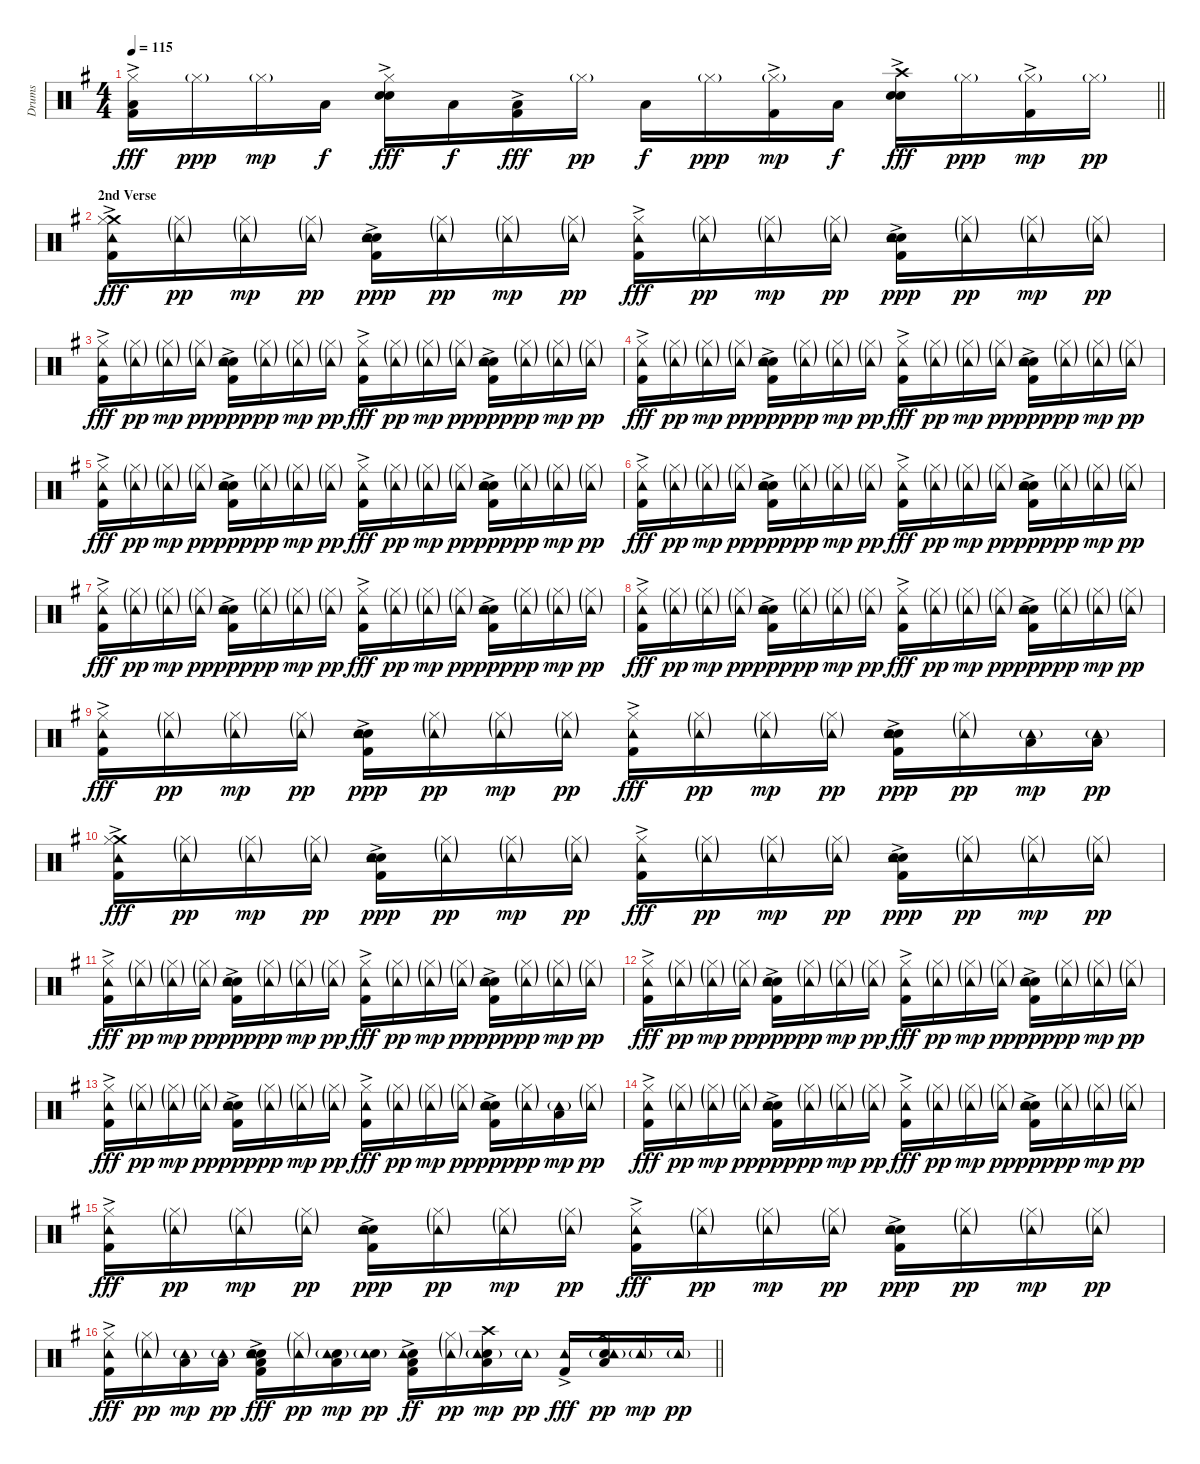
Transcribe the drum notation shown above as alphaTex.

\track ("Drums" "Drums") {instrument percussion}
\staff {score}
\articulation defaults
\ts (4 4)
\tempo 115
\clef neutral
\barLineRight lightlight
\ks g
("Kick (hit) 2"{ac} "Low Tom (hit)" "Hi-Hat (closed)").16{dy fff} "Hi-Hat (closed)"{g}.16{dy ppp} "Hi-Hat (closed)"{g}.16{dy mp} "Low Tom (hit)".16{dy f} ("Snare (hit) 2"{ac} "Electric Snare (hit)" "Hi-Hat (closed)").16{dy fff} "Low Tom (hit)".16{dy f} ("Kick (hit) 2"{ac} "Low Floor Tom (hit)").16{dy fff} "Hi-Hat (closed)"{g}.16{dy pp} "Low Floor Tom (hit)".16{dy f} "Hi-Hat (closed)"{g}.16{dy ppp} ("Kick (hit) 2"{ac} "Hi-Hat (closed)"{g}).16{dy mp} "Low Floor Tom (hit)".16{dy f} ("Snare (hit) 2"{ac} "Electric Snare (hit)" "Crash high (hit)").16{dy fff} "Hi-Hat (closed)"{g}.16{dy ppp} ("Kick (hit) 2"{ac} "Hi-Hat (closed)"{g}).16{dy mp} "Hi-Hat (closed)"{g}.16{dy pp} |
\section ("" "2nd Verse")
("Kick (hit) 2"{ac} "Crash medium (hit)" "Hi-Hat (closed)" "Tambourine (hit)").16{dy fff} ("Hi-Hat (closed)"{g} "Tambourine (hit)"{g}).16{dy pp} ("Hi-Hat (closed)"{g} "Tambourine (hit)"{g}).16{dy mp} ("Hi-Hat (closed)"{g} "Tambourine (hit)"{g}).16{dy pp} ("Kick (hit) 2"{ac} "Snare (hit) 2"{ac} "Electric Snare (hit)" "Tambourine (hit)").16{dy ppp} ("Hi-Hat (closed)"{g} "Tambourine (hit)"{g}).16{dy pp} ("Hi-Hat (closed)"{g} "Tambourine (hit)"{g}).16{dy mp} ("Hi-Hat (closed)"{g} "Tambourine (hit)"{g}).16{dy pp} ("Kick (hit) 2"{ac} "Hi-Hat (closed)" "Tambourine (hit)").16{dy fff} ("Hi-Hat (closed)"{g} "Tambourine (hit)"{g}).16{dy pp} ("Hi-Hat (closed)"{g} "Tambourine (hit)"{g}).16{dy mp} ("Hi-Hat (closed)"{g} "Tambourine (hit)"{g}).16{dy pp} ("Kick (hit) 2"{ac} "Snare (hit) 2"{ac} "Electric Snare (hit)" "Tambourine (hit)").16{dy ppp} ("Hi-Hat (closed)"{g} "Tambourine (hit)"{g}).16{dy pp} ("Hi-Hat (closed)"{g} "Tambourine (hit)"{g}).16{dy mp} ("Hi-Hat (closed)"{g} "Tambourine (hit)"{g}).16{dy pp} |
("Kick (hit) 2"{ac} "Hi-Hat (closed)" "Tambourine (hit)").16{dy fff} ("Hi-Hat (closed)"{g} "Tambourine (hit)"{g}).16{dy pp} ("Hi-Hat (closed)"{g} "Tambourine (hit)"{g}).16{dy mp} ("Hi-Hat (closed)"{g} "Tambourine (hit)"{g}).16{dy pp} ("Kick (hit) 2"{ac} "Snare (hit) 2"{ac} "Electric Snare (hit)" "Tambourine (hit)").16{dy ppp} ("Hi-Hat (closed)"{g} "Tambourine (hit)"{g}).16{dy pp} ("Hi-Hat (closed)"{g} "Tambourine (hit)"{g}).16{dy mp} ("Hi-Hat (closed)"{g} "Tambourine (hit)"{g}).16{dy pp} ("Kick (hit) 2"{ac} "Hi-Hat (closed)" "Tambourine (hit)").16{dy fff} ("Hi-Hat (closed)"{g} "Tambourine (hit)"{g}).16{dy pp} ("Hi-Hat (closed)"{g} "Tambourine (hit)"{g}).16{dy mp} ("Hi-Hat (closed)"{g} "Tambourine (hit)"{g}).16{dy pp} ("Kick (hit) 2"{ac} "Snare (hit) 2"{ac} "Electric Snare (hit)" "Tambourine (hit)").16{dy ppp} ("Hi-Hat (closed)"{g} "Tambourine (hit)"{g}).16{dy pp} ("Hi-Hat (closed)"{g} "Tambourine (hit)"{g}).16{dy mp} ("Hi-Hat (closed)"{g} "Tambourine (hit)"{g}).16{dy pp} |
("Kick (hit) 2"{ac} "Hi-Hat (closed)" "Tambourine (hit)").16{dy fff} ("Hi-Hat (closed)"{g} "Tambourine (hit)"{g}).16{dy pp} ("Hi-Hat (closed)"{g} "Tambourine (hit)"{g}).16{dy mp} ("Hi-Hat (closed)"{g} "Tambourine (hit)"{g}).16{dy pp} ("Kick (hit) 2"{ac} "Snare (hit) 2"{ac} "Electric Snare (hit)" "Tambourine (hit)").16{dy ppp} ("Hi-Hat (closed)"{g} "Tambourine (hit)"{g}).16{dy pp} ("Hi-Hat (closed)"{g} "Tambourine (hit)"{g}).16{dy mp} ("Hi-Hat (closed)"{g} "Tambourine (hit)"{g}).16{dy pp} ("Kick (hit) 2"{ac} "Hi-Hat (closed)" "Tambourine (hit)").16{dy fff} ("Hi-Hat (closed)"{g} "Tambourine (hit)"{g}).16{dy pp} ("Hi-Hat (closed)"{g} "Tambourine (hit)"{g}).16{dy mp} ("Hi-Hat (closed)"{g} "Tambourine (hit)"{g}).16{dy pp} ("Kick (hit) 2"{ac} "Snare (hit) 2"{ac} "Electric Snare (hit)" "Tambourine (hit)").16{dy ppp} ("Hi-Hat (closed)"{g} "Tambourine (hit)"{g}).16{dy pp} ("Hi-Hat (closed)"{g} "Tambourine (hit)"{g}).16{dy mp} ("Hi-Hat (closed)"{g} "Tambourine (hit)"{g}).16{dy pp} |
("Kick (hit) 2"{ac} "Hi-Hat (closed)" "Tambourine (hit)").16{dy fff} ("Hi-Hat (closed)"{g} "Tambourine (hit)"{g}).16{dy pp} ("Hi-Hat (closed)"{g} "Tambourine (hit)"{g}).16{dy mp} ("Hi-Hat (closed)"{g} "Tambourine (hit)"{g}).16{dy pp} ("Kick (hit) 2"{ac} "Snare (hit) 2"{ac} "Electric Snare (hit)" "Tambourine (hit)").16{dy ppp} ("Hi-Hat (closed)"{g} "Tambourine (hit)"{g}).16{dy pp} ("Hi-Hat (closed)"{g} "Tambourine (hit)"{g}).16{dy mp} ("Hi-Hat (closed)"{g} "Tambourine (hit)"{g}).16{dy pp} ("Kick (hit) 2"{ac} "Hi-Hat (closed)" "Tambourine (hit)").16{dy fff} ("Hi-Hat (closed)"{g} "Tambourine (hit)"{g}).16{dy pp} ("Hi-Hat (closed)"{g} "Tambourine (hit)"{g}).16{dy mp} ("Hi-Hat (closed)"{g} "Tambourine (hit)"{g}).16{dy pp} ("Kick (hit) 2"{ac} "Snare (hit) 2"{ac} "Electric Snare (hit)" "Tambourine (hit)").16{dy ppp} ("Hi-Hat (closed)"{g} "Tambourine (hit)"{g}).16{dy pp} ("Hi-Hat (closed)"{g} "Tambourine (hit)"{g}).16{dy mp} ("Hi-Hat (closed)"{g} "Tambourine (hit)"{g}).16{dy pp} |
("Kick (hit) 2"{ac} "Hi-Hat (closed)" "Tambourine (hit)").16{dy fff} ("Hi-Hat (closed)"{g} "Tambourine (hit)"{g}).16{dy pp} ("Hi-Hat (closed)"{g} "Tambourine (hit)"{g}).16{dy mp} ("Hi-Hat (closed)"{g} "Tambourine (hit)"{g}).16{dy pp} ("Kick (hit) 2"{ac} "Snare (hit) 2"{ac} "Electric Snare (hit)" "Tambourine (hit)").16{dy ppp} ("Hi-Hat (closed)"{g} "Tambourine (hit)"{g}).16{dy pp} ("Hi-Hat (closed)"{g} "Tambourine (hit)"{g}).16{dy mp} ("Hi-Hat (closed)"{g} "Tambourine (hit)"{g}).16{dy pp} ("Kick (hit) 2"{ac} "Hi-Hat (closed)" "Tambourine (hit)").16{dy fff} ("Hi-Hat (closed)"{g} "Tambourine (hit)"{g}).16{dy pp} ("Hi-Hat (closed)"{g} "Tambourine (hit)"{g}).16{dy mp} ("Hi-Hat (closed)"{g} "Tambourine (hit)"{g}).16{dy pp} ("Kick (hit) 2"{ac} "Snare (hit) 2"{ac} "Electric Snare (hit)" "Tambourine (hit)").16{dy ppp} ("Hi-Hat (closed)"{g} "Tambourine (hit)"{g}).16{dy pp} ("Hi-Hat (closed)"{g} "Tambourine (hit)"{g}).16{dy mp} ("Hi-Hat (closed)"{g} "Tambourine (hit)"{g}).16{dy pp} |
("Kick (hit) 2"{ac} "Hi-Hat (closed)" "Tambourine (hit)").16{dy fff} ("Hi-Hat (closed)"{g} "Tambourine (hit)"{g}).16{dy pp} ("Hi-Hat (closed)"{g} "Tambourine (hit)"{g}).16{dy mp} ("Hi-Hat (closed)"{g} "Tambourine (hit)"{g}).16{dy pp} ("Kick (hit) 2"{ac} "Snare (hit) 2"{ac} "Electric Snare (hit)" "Tambourine (hit)").16{dy ppp} ("Hi-Hat (closed)"{g} "Tambourine (hit)"{g}).16{dy pp} ("Hi-Hat (closed)"{g} "Tambourine (hit)"{g}).16{dy mp} ("Hi-Hat (closed)"{g} "Tambourine (hit)"{g}).16{dy pp} ("Kick (hit) 2"{ac} "Hi-Hat (closed)" "Tambourine (hit)").16{dy fff} ("Hi-Hat (closed)"{g} "Tambourine (hit)"{g}).16{dy pp} ("Hi-Hat (closed)"{g} "Tambourine (hit)"{g}).16{dy mp} ("Hi-Hat (closed)"{g} "Tambourine (hit)"{g}).16{dy pp} ("Kick (hit) 2"{ac} "Snare (hit) 2"{ac} "Electric Snare (hit)" "Tambourine (hit)").16{dy ppp} ("Hi-Hat (closed)"{g} "Tambourine (hit)"{g}).16{dy pp} ("Hi-Hat (closed)"{g} "Tambourine (hit)"{g}).16{dy mp} ("Hi-Hat (closed)"{g} "Tambourine (hit)"{g}).16{dy pp} |
("Kick (hit) 2"{ac} "Hi-Hat (closed)" "Tambourine (hit)").16{dy fff} ("Hi-Hat (closed)"{g} "Tambourine (hit)"{g}).16{dy pp} ("Hi-Hat (closed)"{g} "Tambourine (hit)"{g}).16{dy mp} ("Hi-Hat (closed)"{g} "Tambourine (hit)"{g}).16{dy pp} ("Kick (hit) 2"{ac} "Snare (hit) 2"{ac} "Electric Snare (hit)" "Tambourine (hit)").16{dy ppp} ("Hi-Hat (closed)"{g} "Tambourine (hit)"{g}).16{dy pp} ("Hi-Hat (closed)"{g} "Tambourine (hit)"{g}).16{dy mp} ("Hi-Hat (closed)"{g} "Tambourine (hit)"{g}).16{dy pp} ("Kick (hit) 2"{ac} "Hi-Hat (closed)" "Tambourine (hit)").16{dy fff} ("Hi-Hat (closed)"{g} "Tambourine (hit)"{g}).16{dy pp} ("Hi-Hat (closed)"{g} "Tambourine (hit)"{g}).16{dy mp} ("Hi-Hat (closed)"{g} "Tambourine (hit)"{g}).16{dy pp} ("Kick (hit) 2"{ac} "Snare (hit) 2"{ac} "Electric Snare (hit)" "Tambourine (hit)").16{dy ppp} ("Hi-Hat (closed)"{g} "Tambourine (hit)"{g}).16{dy pp} ("Hi-Hat (closed)"{g} "Tambourine (hit)"{g}).16{dy mp} ("Hi-Hat (closed)"{g} "Tambourine (hit)"{g}).16{dy pp} |
("Kick (hit) 2"{ac} "Hi-Hat (closed)" "Tambourine (hit)").16{dy fff} ("Hi-Hat (closed)"{g} "Tambourine (hit)"{g}).16{dy pp} ("Hi-Hat (closed)"{g} "Tambourine (hit)"{g}).16{dy mp} ("Hi-Hat (closed)"{g} "Tambourine (hit)"{g}).16{dy pp} ("Kick (hit) 2"{ac} "Snare (hit) 2"{ac} "Electric Snare (hit)" "Tambourine (hit)").16{dy ppp} ("Hi-Hat (closed)"{g} "Tambourine (hit)"{g}).16{dy pp} ("Hi-Hat (closed)"{g} "Tambourine (hit)"{g}).16{dy mp} ("Hi-Hat (closed)"{g} "Tambourine (hit)"{g}).16{dy pp} ("Kick (hit) 2"{ac} "Hi-Hat (closed)" "Tambourine (hit)").16{dy fff} ("Hi-Hat (closed)"{g} "Tambourine (hit)"{g}).16{dy pp} ("Hi-Hat (closed)"{g} "Tambourine (hit)"{g}).16{dy mp} ("Hi-Hat (closed)"{g} "Tambourine (hit)"{g}).16{dy pp} ("Kick (hit) 2"{ac} "Snare (hit) 2"{ac} "Electric Snare (hit)" "Tambourine (hit)").16{dy ppp} ("Hi-Hat (closed)"{g} "Tambourine (hit)"{g}).16{dy pp} ("Low Tom (hit)" "Tambourine (hit)"{g}).16{dy mp} ("Low Floor Tom (hit)" "Tambourine (hit)"{g}).16{dy pp} |
("Kick (hit) 2"{ac} "Crash medium (hit)" "Hi-Hat (closed)" "Tambourine (hit)").16{dy fff} ("Hi-Hat (closed)"{g} "Tambourine (hit)"{g}).16{dy pp} ("Hi-Hat (closed)"{g} "Tambourine (hit)"{g}).16{dy mp} ("Hi-Hat (closed)"{g} "Tambourine (hit)"{g}).16{dy pp} ("Kick (hit) 2"{ac} "Snare (hit) 2"{ac} "Electric Snare (hit)" "Tambourine (hit)").16{dy ppp} ("Hi-Hat (closed)"{g} "Tambourine (hit)"{g}).16{dy pp} ("Hi-Hat (closed)"{g} "Tambourine (hit)"{g}).16{dy mp} ("Hi-Hat (closed)"{g} "Tambourine (hit)"{g}).16{dy pp} ("Kick (hit) 2"{ac} "Hi-Hat (closed)" "Tambourine (hit)").16{dy fff} ("Hi-Hat (closed)"{g} "Tambourine (hit)"{g}).16{dy pp} ("Hi-Hat (closed)"{g} "Tambourine (hit)"{g}).16{dy mp} ("Hi-Hat (closed)"{g} "Tambourine (hit)"{g}).16{dy pp} ("Kick (hit) 2"{ac} "Snare (hit) 2"{ac} "Electric Snare (hit)" "Tambourine (hit)").16{dy ppp} ("Hi-Hat (closed)"{g} "Tambourine (hit)"{g}).16{dy pp} ("Hi-Hat (closed)"{g} "Tambourine (hit)"{g}).16{dy mp} ("Hi-Hat (closed)"{g} "Tambourine (hit)"{g}).16{dy pp} |
("Kick (hit) 2"{ac} "Hi-Hat (closed)" "Tambourine (hit)").16{dy fff} ("Hi-Hat (closed)"{g} "Tambourine (hit)"{g}).16{dy pp} ("Hi-Hat (closed)"{g} "Tambourine (hit)"{g}).16{dy mp} ("Hi-Hat (closed)"{g} "Tambourine (hit)"{g}).16{dy pp} ("Kick (hit) 2"{ac} "Snare (hit) 2"{ac} "Electric Snare (hit)" "Tambourine (hit)").16{dy ppp} ("Hi-Hat (closed)"{g} "Tambourine (hit)"{g}).16{dy pp} ("Hi-Hat (closed)"{g} "Tambourine (hit)"{g}).16{dy mp} ("Hi-Hat (closed)"{g} "Tambourine (hit)"{g}).16{dy pp} ("Kick (hit) 2"{ac} "Hi-Hat (closed)" "Tambourine (hit)").16{dy fff} ("Hi-Hat (closed)"{g} "Tambourine (hit)"{g}).16{dy pp} ("Hi-Hat (closed)"{g} "Tambourine (hit)"{g}).16{dy mp} ("Hi-Hat (closed)"{g} "Tambourine (hit)"{g}).16{dy pp} ("Kick (hit) 2"{ac} "Snare (hit) 2"{ac} "Electric Snare (hit)" "Tambourine (hit)").16{dy ppp} ("Hi-Hat (closed)"{g} "Tambourine (hit)"{g}).16{dy pp} ("Hi-Hat (closed)"{g} "Tambourine (hit)"{g}).16{dy mp} ("Hi-Hat (closed)"{g} "Tambourine (hit)"{g}).16{dy pp} |
("Kick (hit) 2"{ac} "Hi-Hat (closed)" "Tambourine (hit)").16{dy fff} ("Hi-Hat (closed)"{g} "Tambourine (hit)"{g}).16{dy pp} ("Hi-Hat (closed)"{g} "Tambourine (hit)"{g}).16{dy mp} ("Hi-Hat (closed)"{g} "Tambourine (hit)"{g}).16{dy pp} ("Kick (hit) 2"{ac} "Snare (hit) 2"{ac} "Electric Snare (hit)" "Tambourine (hit)").16{dy ppp} ("Hi-Hat (closed)"{g} "Tambourine (hit)"{g}).16{dy pp} ("Hi-Hat (closed)"{g} "Tambourine (hit)"{g}).16{dy mp} ("Hi-Hat (closed)"{g} "Tambourine (hit)"{g}).16{dy pp} ("Kick (hit) 2"{ac} "Hi-Hat (closed)" "Tambourine (hit)").16{dy fff} ("Hi-Hat (closed)"{g} "Tambourine (hit)"{g}).16{dy pp} ("Hi-Hat (closed)"{g} "Tambourine (hit)"{g}).16{dy mp} ("Hi-Hat (closed)"{g} "Tambourine (hit)"{g}).16{dy pp} ("Kick (hit) 2"{ac} "Snare (hit) 2"{ac} "Electric Snare (hit)" "Tambourine (hit)").16{dy ppp} ("Hi-Hat (closed)"{g} "Tambourine (hit)"{g}).16{dy pp} ("Hi-Hat (closed)"{g} "Tambourine (hit)"{g}).16{dy mp} ("Hi-Hat (closed)"{g} "Tambourine (hit)"{g}).16{dy pp} |
("Kick (hit) 2"{ac} "Hi-Hat (closed)" "Tambourine (hit)").16{dy fff} ("Hi-Hat (closed)"{g} "Tambourine (hit)"{g}).16{dy pp} ("Hi-Hat (closed)"{g} "Tambourine (hit)"{g}).16{dy mp} ("Hi-Hat (closed)"{g} "Tambourine (hit)"{g}).16{dy pp} ("Kick (hit) 2"{ac} "Snare (hit) 2"{ac} "Electric Snare (hit)" "Tambourine (hit)").16{dy ppp} ("Hi-Hat (closed)"{g} "Tambourine (hit)"{g}).16{dy pp} ("Hi-Hat (closed)"{g} "Tambourine (hit)"{g}).16{dy mp} ("Hi-Hat (closed)"{g} "Tambourine (hit)"{g}).16{dy pp} ("Kick (hit) 2"{ac} "Hi-Hat (closed)" "Tambourine (hit)").16{dy fff} ("Hi-Hat (closed)"{g} "Tambourine (hit)"{g}).16{dy pp} ("Hi-Hat (closed)"{g} "Tambourine (hit)"{g}).16{dy mp} ("Hi-Hat (closed)"{g} "Tambourine (hit)"{g}).16{dy pp} ("Kick (hit) 2"{ac} "Snare (hit) 2"{ac} "Electric Snare (hit)" "Tambourine (hit)").16{dy ppp} ("Hi-Hat (closed)"{g} "Tambourine (hit)"{g}).16{dy pp} ("Low Tom (hit)" "Tambourine (hit)"{g}).16{dy mp} ("Hi-Hat (closed)"{g} "Tambourine (hit)"{g}).16{dy pp} |
("Kick (hit) 2"{ac} "Hi-Hat (closed)" "Tambourine (hit)").16{dy fff} ("Hi-Hat (closed)"{g} "Tambourine (hit)"{g}).16{dy pp} ("Hi-Hat (closed)"{g} "Tambourine (hit)"{g}).16{dy mp} ("Hi-Hat (closed)"{g} "Tambourine (hit)"{g}).16{dy pp} ("Kick (hit) 2"{ac} "Snare (hit) 2"{ac} "Electric Snare (hit)" "Tambourine (hit)").16{dy ppp} ("Hi-Hat (closed)"{g} "Tambourine (hit)"{g}).16{dy pp} ("Hi-Hat (closed)"{g} "Tambourine (hit)"{g}).16{dy mp} ("Hi-Hat (closed)"{g} "Tambourine (hit)"{g}).16{dy pp} ("Kick (hit) 2"{ac} "Hi-Hat (closed)" "Tambourine (hit)").16{dy fff} ("Hi-Hat (closed)"{g} "Tambourine (hit)"{g}).16{dy pp} ("Hi-Hat (closed)"{g} "Tambourine (hit)"{g}).16{dy mp} ("Hi-Hat (closed)"{g} "Tambourine (hit)"{g}).16{dy pp} ("Kick (hit) 2"{ac} "Snare (hit) 2"{ac} "Electric Snare (hit)" "Tambourine (hit)").16{dy ppp} ("Hi-Hat (closed)"{g} "Tambourine (hit)"{g}).16{dy pp} ("Hi-Hat (closed)"{g} "Tambourine (hit)"{g}).16{dy mp} ("Hi-Hat (closed)"{g} "Tambourine (hit)"{g}).16{dy pp} |
("Kick (hit) 2"{ac} "Hi-Hat (closed)" "Tambourine (hit)").16{dy fff} ("Hi-Hat (closed)"{g} "Tambourine (hit)"{g}).16{dy pp} ("Hi-Hat (closed)"{g} "Tambourine (hit)"{g}).16{dy mp} ("Hi-Hat (closed)"{g} "Tambourine (hit)"{g}).16{dy pp} ("Kick (hit) 2"{ac} "Snare (hit) 2"{ac} "Electric Snare (hit)" "Tambourine (hit)").16{dy ppp} ("Hi-Hat (closed)"{g} "Tambourine (hit)"{g}).16{dy pp} ("Hi-Hat (closed)"{g} "Tambourine (hit)"{g}).16{dy mp} ("Hi-Hat (closed)"{g} "Tambourine (hit)"{g}).16{dy pp} ("Kick (hit) 2"{ac} "Hi-Hat (closed)" "Tambourine (hit)").16{dy fff} ("Hi-Hat (closed)"{g} "Tambourine (hit)"{g}).16{dy pp} ("Hi-Hat (closed)"{g} "Tambourine (hit)"{g}).16{dy mp} ("Hi-Hat (closed)"{g} "Tambourine (hit)"{g}).16{dy pp} ("Kick (hit) 2"{ac} "Snare (hit) 2"{ac} "Electric Snare (hit)" "Tambourine (hit)").16{dy ppp} ("Hi-Hat (closed)"{g} "Tambourine (hit)"{g}).16{dy pp} ("Hi-Hat (closed)"{g} "Tambourine (hit)"{g}).16{dy mp} ("Hi-Hat (closed)"{g} "Tambourine (hit)"{g}).16{dy pp} |
\barLineRight lightlight
("Kick (hit) 2"{ac} "Hi-Hat (closed)" "Tambourine (hit)").16{dy fff} ("Hi-Hat (closed)"{g} "Tambourine (hit)"{g}).16{dy pp} ("Low Tom (hit)" "Tambourine (hit)"{g}).16{dy mp} ("Low Tom (hit)" "Tambourine (hit)"{g}).16{dy pp} ("Kick (hit) 2"{ac} "Snare (hit) 2"{ac} "Electric Snare (hit)" "Low Tom (hit)" "Tambourine (hit)").16{dy fff} ("Hi-Hat (closed)"{g} "Tambourine (hit)"{g}).16{dy pp} ("Snare (hit) 2" "Low Tom (hit)" "Tambourine (hit)"{g}).16{dy mp} ("Snare (hit) 2" "Tambourine (hit)"{g}).16{dy pp} ("Kick (hit) 2"{ac} "Snare (hit) 2" "Low Floor Tom (hit)" "Tambourine (hit)").16{dy ff} ("Hi-Hat (closed)"{g} "Tambourine (hit)"{g}).16{dy pp} ("Snare (hit) 2" "Crash high (hit)" "Low Tom (hit)" "Tambourine (hit)"{g}).16{dy mp} "Tambourine (hit)"{g}.16{dy pp} ("Kick (hit) 2"{ac} "Tambourine (hit)").16{dy fff} ("Snare (hit) 2" "Crash medium (hit)" "Low Tom (hit)" "Tambourine (hit)"{g}).16{dy pp} "Tambourine (hit)"{g}.16{dy mp} "Tambourine (hit)"{g}.16{dy pp}
